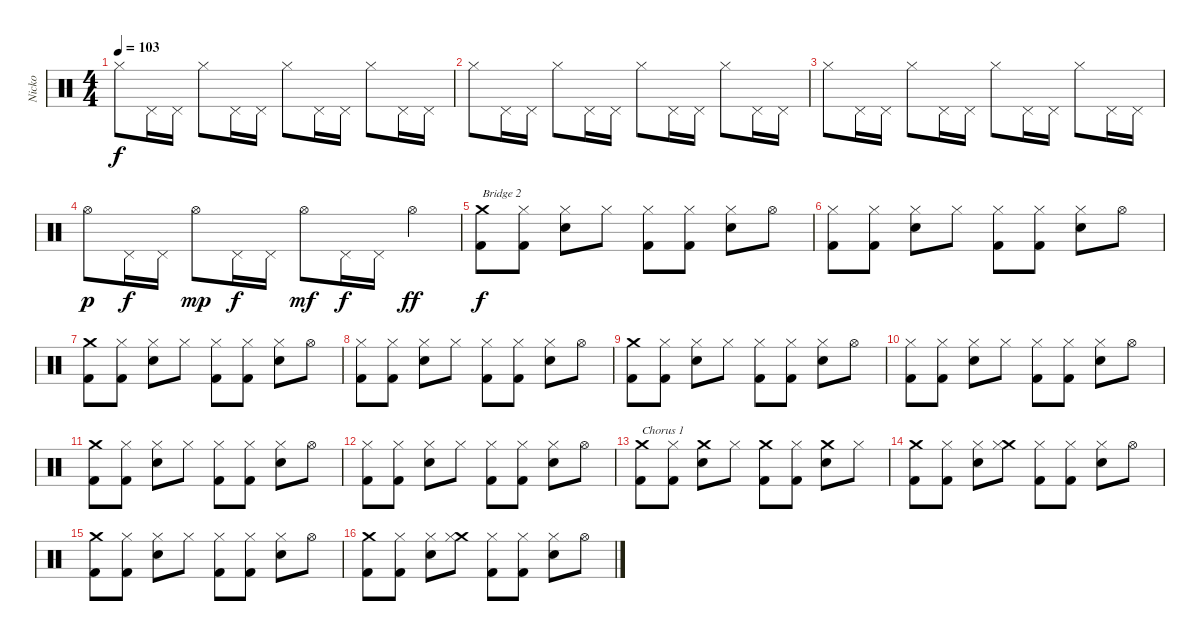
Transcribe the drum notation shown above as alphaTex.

\track ("Nicko" "Nicko") {instrument percussion}
\staff {score}
\articulation defaults
\ts (4 4)
\tempo 103
\clef neutral
\ks c "Hi-Hat (closed)".8{dy f} "Pedal Hi-Hat (hit)".16 "Pedal Hi-Hat (hit)".16 "Hi-Hat (closed)".8 "Pedal Hi-Hat (hit)".16 "Pedal Hi-Hat (hit)".16 "Hi-Hat (closed)".8 "Pedal Hi-Hat (hit)".16 "Pedal Hi-Hat (hit)".16 "Hi-Hat (closed)".8 "Pedal Hi-Hat (hit)".16 "Pedal Hi-Hat (hit)".16
|
"Hi-Hat (closed)".8 "Pedal Hi-Hat (hit)".16 "Pedal Hi-Hat (hit)".16 "Hi-Hat (closed)".8 "Pedal Hi-Hat (hit)".16 "Pedal Hi-Hat (hit)".16 "Hi-Hat (closed)".8 "Pedal Hi-Hat (hit)".16 "Pedal Hi-Hat (hit)".16 "Hi-Hat (closed)".8 "Pedal Hi-Hat (hit)".16 "Pedal Hi-Hat (hit)".16 |
"Hi-Hat (closed)".8 "Pedal Hi-Hat (hit)".16 "Pedal Hi-Hat (hit)".16 "Hi-Hat (closed)".8 "Pedal Hi-Hat (hit)".16 "Pedal Hi-Hat (hit)".16 "Hi-Hat (closed)".8 "Pedal Hi-Hat (hit)".16 "Pedal Hi-Hat (hit)".16 "Hi-Hat (closed)".8 "Pedal Hi-Hat (hit)".16 "Pedal Hi-Hat (hit)".16 |
"Hi-Hat (open)".8{dy p} "Pedal Hi-Hat (hit)".16{dy f} "Pedal Hi-Hat (hit)".16 "Hi-Hat (open)".8{dy mp} "Pedal Hi-Hat (hit)".16{dy f} "Pedal Hi-Hat (hit)".16 "Hi-Hat (open)".8{dy mf} "Pedal Hi-Hat (hit)".16{dy f} "Pedal Hi-Hat (hit)".16 "Hi-Hat (open)".4{dy ff} |
("Crash medium (hit)" "Kick (hit) 2").8{txt "Bridge 2" dy f} ("Hi-Hat (closed)" "Kick (hit) 2").8 ("Hi-Hat (closed)" "Snare (hit) 2").8 "Hi-Hat (closed)".8 ("Hi-Hat (closed)" "Kick (hit) 2").8 ("Hi-Hat (closed)" "Kick (hit) 2").8 ("Hi-Hat (closed)" "Snare (hit) 2").8 "Hi-Hat (open)".8 |
("Hi-Hat (closed)" "Kick (hit) 2").8 ("Hi-Hat (closed)" "Kick (hit) 2").8 ("Hi-Hat (closed)" "Snare (hit) 2").8 "Hi-Hat (closed)".8 ("Hi-Hat (closed)" "Kick (hit) 2").8 ("Hi-Hat (closed)" "Kick (hit) 2").8 ("Hi-Hat (closed)" "Snare (hit) 2").8 "Hi-Hat (open)".8 |
("Crash medium (hit)" "Kick (hit) 2").8 ("Hi-Hat (closed)" "Kick (hit) 2").8 ("Hi-Hat (closed)" "Snare (hit) 2").8 "Hi-Hat (closed)".8 ("Hi-Hat (closed)" "Kick (hit) 2").8 ("Hi-Hat (closed)" "Kick (hit) 2").8 ("Hi-Hat (closed)" "Snare (hit) 2").8 "Hi-Hat (open)".8 |
("Hi-Hat (closed)" "Kick (hit) 2").8 ("Hi-Hat (closed)" "Kick (hit) 2").8 ("Hi-Hat (closed)" "Snare (hit) 2").8 "Hi-Hat (closed)".8 ("Hi-Hat (closed)" "Kick (hit) 2").8 ("Hi-Hat (closed)" "Kick (hit) 2").8 ("Hi-Hat (closed)" "Snare (hit) 2").8 "Hi-Hat (open)".8 |
("Crash medium (hit)" "Kick (hit) 2").8 ("Hi-Hat (closed)" "Kick (hit) 2").8 ("Hi-Hat (closed)" "Snare (hit) 2").8 "Hi-Hat (closed)".8 ("Hi-Hat (closed)" "Kick (hit) 2").8 ("Hi-Hat (closed)" "Kick (hit) 2").8 ("Hi-Hat (closed)" "Snare (hit) 2").8 "Hi-Hat (open)".8 |
("Hi-Hat (closed)" "Kick (hit) 2").8 ("Hi-Hat (closed)" "Kick (hit) 2").8 ("Hi-Hat (closed)" "Snare (hit) 2").8 "Hi-Hat (closed)".8 ("Hi-Hat (closed)" "Kick (hit) 2").8 ("Hi-Hat (closed)" "Kick (hit) 2").8 ("Hi-Hat (closed)" "Snare (hit) 2").8 "Hi-Hat (open)".8 |
("Crash medium (hit)" "Kick (hit) 2").8 ("Hi-Hat (closed)" "Kick (hit) 2").8 ("Hi-Hat (closed)" "Snare (hit) 2").8 "Hi-Hat (closed)".8 ("Hi-Hat (closed)" "Kick (hit) 2").8 ("Hi-Hat (closed)" "Kick (hit) 2").8 ("Hi-Hat (closed)" "Snare (hit) 2").8 "Hi-Hat (open)".8 |
("Hi-Hat (closed)" "Kick (hit) 2").8 ("Hi-Hat (closed)" "Kick (hit) 2").8 ("Hi-Hat (closed)" "Snare (hit) 2").8 "Hi-Hat (closed)".8 ("Hi-Hat (closed)" "Kick (hit) 2").8 ("Hi-Hat (closed)" "Kick (hit) 2").8 ("Hi-Hat (closed)" "Snare (hit) 2").8 "Hi-Hat (open)".8 |
("Crash medium (hit)" "Kick (hit) 2").8{txt "Chorus 1"} ("Hi-Hat (closed)" "Kick (hit) 2").8 ("Crash medium (hit)" "Snare (hit) 2").8 "Hi-Hat (closed)".8 ("Crash medium (hit)" "Kick (hit) 2").8 ("Hi-Hat (closed)" "Kick (hit) 2").8 ("Crash medium (hit)" "Snare (hit) 2").8 "Hi-Hat (closed)".8 |
("Crash medium (hit)" "Kick (hit) 2").8 ("Hi-Hat (closed)" "Kick (hit) 2").8 ("Hi-Hat (closed)" "Snare (hit) 2").8 ("Crash medium (hit)" "Hi-Hat (closed)").8 ("Hi-Hat (closed)" "Kick (hit) 2").8 ("Hi-Hat (closed)" "Kick (hit) 2").8 ("Hi-Hat (closed)" "Snare (hit) 2").8 "Hi-Hat (open)".8 |
("Crash medium (hit)" "Kick (hit) 2").8 ("Hi-Hat (closed)" "Kick (hit) 2").8 ("Hi-Hat (closed)" "Snare (hit) 2").8 "Hi-Hat (closed)".8 ("Hi-Hat (closed)" "Kick (hit) 2").8 ("Hi-Hat (closed)" "Kick (hit) 2").8 ("Hi-Hat (closed)" "Snare (hit) 2").8 "Hi-Hat (open)".8 |
("Crash medium (hit)" "Kick (hit) 2").8 ("Hi-Hat (closed)" "Kick (hit) 2").8 ("Hi-Hat (closed)" "Snare (hit) 2").8 ("Crash medium (hit)" "Hi-Hat (closed)").8 ("Hi-Hat (closed)" "Kick (hit) 2").8 ("Hi-Hat (closed)" "Kick (hit) 2").8 ("Hi-Hat (closed)" "Snare (hit) 2").8 "Hi-Hat (open)".8
